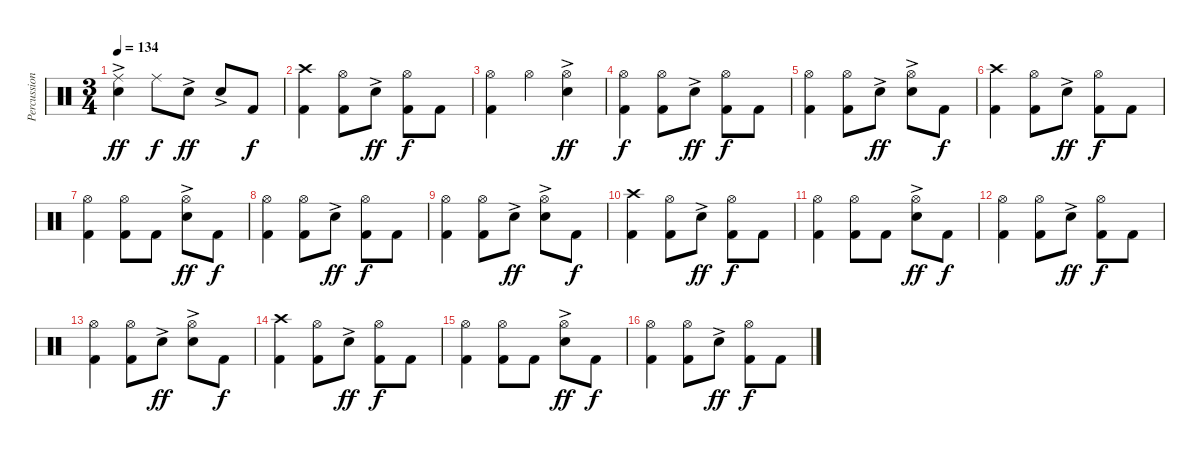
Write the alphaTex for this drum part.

\track ("Percussion" "Percussion") {instrument percussion}
\staff {score}
\articulation defaults
\ts (3 4)
\tempo 134
\clef neutral
\ks c
("Ride (middle)" "Electric Snare (hit)"{ac}).4{dy ff} "Ride (middle)".8{dy f} "Electric Snare (hit)"{ac}.8{dy ff} "Electric Snare (hit)"{ac}.8 "Kick (hit) 2".8{dy f} |
("Crash high (hit)" "Kick (hit) 2").4 ("Hi-Hat (open)" "Kick (hit) 2").8 "Electric Snare (hit)"{ac}.8{dy ff} ("Hi-Hat (open)" "Kick (hit) 2").8{dy f} "Kick (hit) 2".8 |
("Hi-Hat (open)" "Kick (hit) 2").4 "Hi-Hat (open)".4 ("Hi-Hat (open)" "Electric Snare (hit)"{ac}).4{dy ff} |
("Hi-Hat (open)" "Kick (hit) 2").4{dy f} ("Hi-Hat (open)" "Kick (hit) 2").8 "Electric Snare (hit)"{ac}.8{dy ff} ("Hi-Hat (open)" "Kick (hit) 2").8{dy f} "Kick (hit) 2".8 |
("Hi-Hat (open)" "Kick (hit) 2").4 ("Hi-Hat (open)" "Kick (hit) 2").8 "Electric Snare (hit)"{ac}.8{dy ff} ("Hi-Hat (open)" "Electric Snare (hit)"{ac}).8 "Kick (hit) 2".8{dy f} |
("Crash high (hit)" "Kick (hit) 2").4 ("Hi-Hat (open)" "Kick (hit) 2").8 "Electric Snare (hit)"{ac}.8{dy ff} ("Hi-Hat (open)" "Kick (hit) 2").8{dy f} "Kick (hit) 2".8 |
("Hi-Hat (open)" "Kick (hit) 2").4 ("Hi-Hat (open)" "Kick (hit) 2").8 "Kick (hit) 2".8 ("Hi-Hat (open)" "Electric Snare (hit)"{ac}).8{dy ff} "Kick (hit) 2".8{dy f} |
("Hi-Hat (open)" "Kick (hit) 2").4 ("Hi-Hat (open)" "Kick (hit) 2").8 "Electric Snare (hit)"{ac}.8{dy ff} ("Hi-Hat (open)" "Kick (hit) 2").8{dy f} "Kick (hit) 2".8 |
("Hi-Hat (open)" "Kick (hit) 2").4 ("Hi-Hat (open)" "Kick (hit) 2").8 "Electric Snare (hit)"{ac}.8{dy ff} ("Hi-Hat (open)" "Electric Snare (hit)"{ac}).8 "Kick (hit) 2".8{dy f} |
("Crash high (hit)" "Kick (hit) 2").4 ("Hi-Hat (open)" "Kick (hit) 2").8 "Electric Snare (hit)"{ac}.8{dy ff} ("Hi-Hat (open)" "Kick (hit) 2").8{dy f} "Kick (hit) 2".8 |
("Hi-Hat (open)" "Kick (hit) 2").4 ("Hi-Hat (open)" "Kick (hit) 2").8 "Kick (hit) 2".8 ("Hi-Hat (open)" "Electric Snare (hit)"{ac}).8{dy ff} "Kick (hit) 2".8{dy f} |
("Hi-Hat (open)" "Kick (hit) 2").4 ("Hi-Hat (open)" "Kick (hit) 2").8 "Electric Snare (hit)"{ac}.8{dy ff} ("Hi-Hat (open)" "Kick (hit) 2").8{dy f} "Kick (hit) 2".8 |
("Hi-Hat (open)" "Kick (hit) 2").4 ("Hi-Hat (open)" "Kick (hit) 2").8 "Electric Snare (hit)"{ac}.8{dy ff} ("Hi-Hat (open)" "Electric Snare (hit)"{ac}).8 "Kick (hit) 2".8{dy f} |
("Crash high (hit)" "Kick (hit) 2").4 ("Hi-Hat (open)" "Kick (hit) 2").8 "Electric Snare (hit)"{ac}.8{dy ff} ("Hi-Hat (open)" "Kick (hit) 2").8{dy f} "Kick (hit) 2".8 |
("Hi-Hat (open)" "Kick (hit) 2").4 ("Hi-Hat (open)" "Kick (hit) 2").8 "Kick (hit) 2".8 ("Hi-Hat (open)" "Electric Snare (hit)"{ac}).8{dy ff} "Kick (hit) 2".8{dy f} |
("Hi-Hat (open)" "Kick (hit) 2").4 ("Hi-Hat (open)" "Kick (hit) 2").8 "Electric Snare (hit)"{ac}.8{dy ff} ("Hi-Hat (open)" "Kick (hit) 2").8{dy f} "Kick (hit) 2".8
